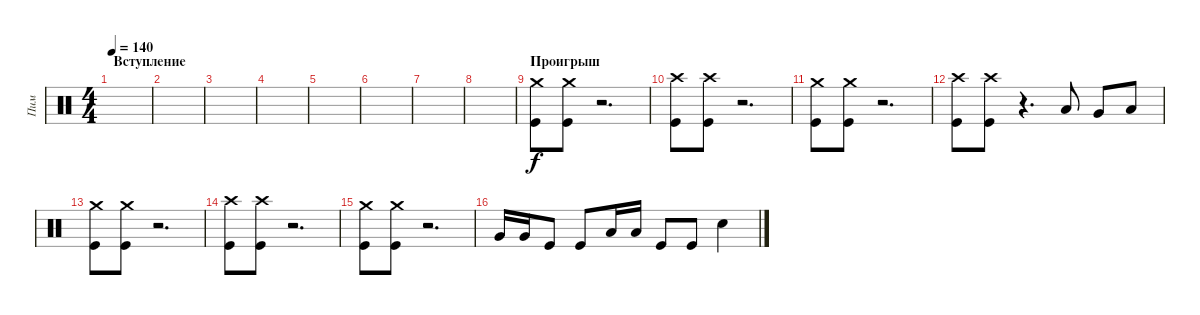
\track ("Пим" "Пим") {instrument percussion}
\staff {score}
\articulation defaults
\ts (4 4)
\section ("" "Вступление")
\tempo 140
\clef neutral
\ks c
|
|
|
|
|
|
|
|
\section ("" "Проигрыш")
("Crash medium (hit)" "Kick (hit)").8 ("Crash medium (hit)" "Kick (hit)").8 r.2{d} |
("Crash high (hit)" "Kick (hit)").8 ("Crash high (hit)" "Kick (hit)").8 r.2{d} |
("Crash medium (hit)" "Kick (hit)").8 ("Crash medium (hit)" "Kick (hit)").8 r.2{d} |
("Crash high (hit)" "Kick (hit)").8 ("Crash high (hit)" "Kick (hit)").8 r.4{d} "Low Tom (hit)".8 "Very Low Tom (hit)".8 "Low Floor Tom (hit)".8 |
("Crash medium (hit)" "Kick (hit)").8 ("Crash medium (hit)" "Kick (hit)").8 r.2{d} |
("Crash high (hit)" "Kick (hit)").8 ("Crash high (hit)" "Kick (hit)").8 r.2{d} |
("Crash medium (hit)" "Kick (hit)").8 ("Crash medium (hit)" "Kick (hit)").8 r.2{d} |
"Very Low Tom (hit)".16 "Very Low Tom (hit)".16 "Kick (hit)".8 "Kick (hit)".8 "Low Floor Tom (hit)".16 "Low Floor Tom (hit)".16 "Kick (hit)".8 "Kick (hit)".8 "Snare (hit) 2".4
